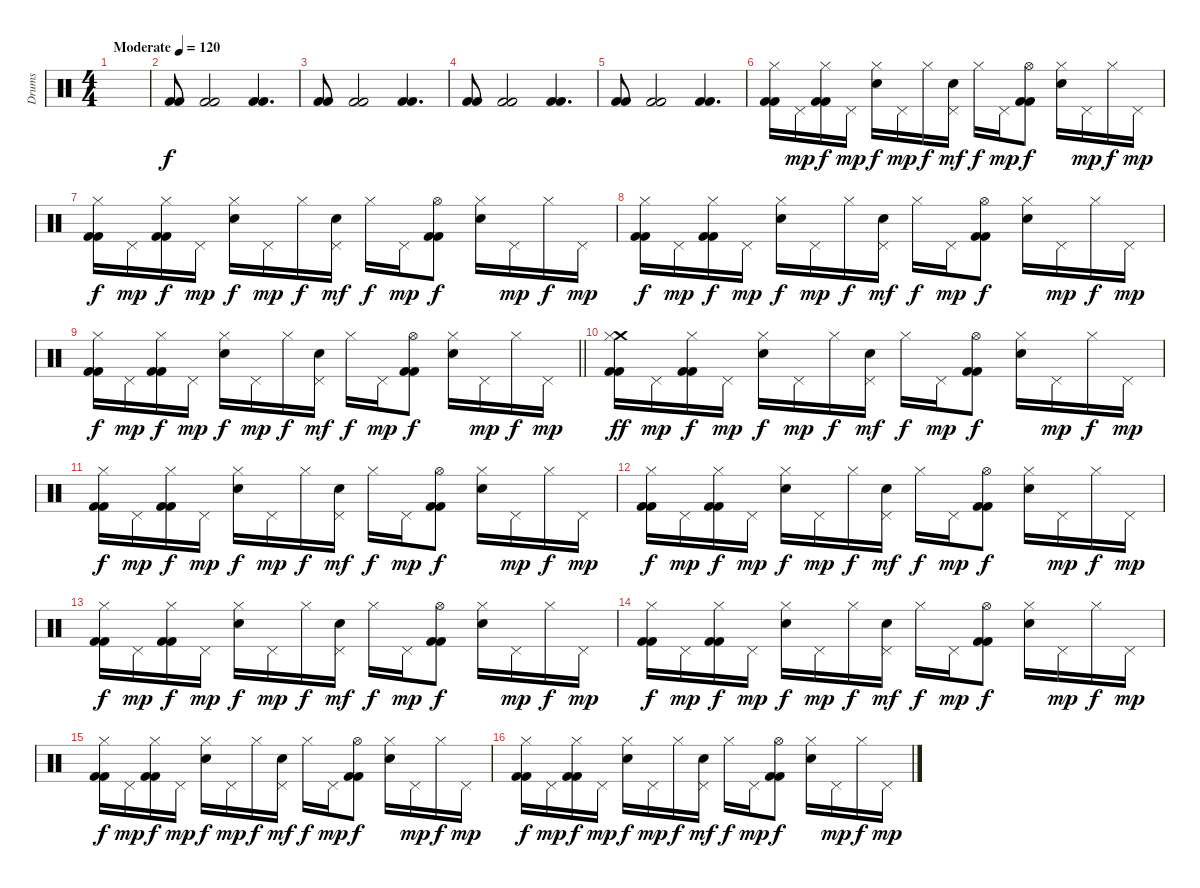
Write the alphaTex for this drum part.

\track ("Drums" "Drums") {instrument percussion}
\staff {score}
\articulation defaults
\ts (4 4)
\tempo (120 "Moderate")
\clef neutral
\ks c
|
("Kick (hit) 2" "Kick (hit) 2").8 ("Kick (hit) 2" "Kick (hit) 2").2{dy f} ("Kick (hit) 2" "Kick (hit) 2").4{d} |
("Kick (hit) 2" "Kick (hit) 2").8 ("Kick (hit) 2" "Kick (hit) 2").2 ("Kick (hit) 2" "Kick (hit) 2").4{d} |
("Kick (hit) 2" "Kick (hit) 2").8 ("Kick (hit) 2" "Kick (hit) 2").2 ("Kick (hit) 2" "Kick (hit) 2").4{d} |
("Kick (hit) 2" "Kick (hit) 2").8 ("Kick (hit) 2" "Kick (hit) 2").2 ("Kick (hit) 2" "Kick (hit) 2").4{d} |
("Hi-Hat (closed)" "Kick (hit) 2" "Kick (hit) 2").16 "Pedal Hi-Hat (hit)".16{dy mp} ("Hi-Hat (closed)" "Kick (hit) 2" "Kick (hit) 2").16{dy f} "Pedal Hi-Hat (hit)".16{dy mp} ("Hi-Hat (closed)" "Electric Snare (hit)").16{dy f} "Pedal Hi-Hat (hit)".16{dy mp} "Hi-Hat (closed)".16{dy f} ("Pedal Hi-Hat (hit)" "Electric Snare (hit)").16{dy mf} "Hi-Hat (closed)".16{dy f} "Pedal Hi-Hat (hit)".16{dy mp} ("Hi-Hat (open)" "Kick (hit) 2" "Kick (hit) 2").8{dy f} ("Hi-Hat (closed)" "Electric Snare (hit)").16 "Pedal Hi-Hat (hit)".16{dy mp} "Hi-Hat (closed)".16{dy f} "Pedal Hi-Hat (hit)".16{dy mp} |
("Hi-Hat (closed)" "Kick (hit) 2" "Kick (hit) 2").16{dy f} "Pedal Hi-Hat (hit)".16{dy mp} ("Hi-Hat (closed)" "Kick (hit) 2" "Kick (hit) 2").16{dy f} "Pedal Hi-Hat (hit)".16{dy mp} ("Hi-Hat (closed)" "Electric Snare (hit)").16{dy f} "Pedal Hi-Hat (hit)".16{dy mp} "Hi-Hat (closed)".16{dy f} ("Pedal Hi-Hat (hit)" "Electric Snare (hit)").16{dy mf} "Hi-Hat (closed)".16{dy f} "Pedal Hi-Hat (hit)".16{dy mp} ("Hi-Hat (open)" "Kick (hit) 2" "Kick (hit) 2").8{dy f} ("Hi-Hat (closed)" "Electric Snare (hit)").16 "Pedal Hi-Hat (hit)".16{dy mp} "Hi-Hat (closed)".16{dy f} "Pedal Hi-Hat (hit)".16{dy mp} |
("Hi-Hat (closed)" "Kick (hit) 2" "Kick (hit) 2").16{dy f} "Pedal Hi-Hat (hit)".16{dy mp} ("Hi-Hat (closed)" "Kick (hit) 2" "Kick (hit) 2").16{dy f} "Pedal Hi-Hat (hit)".16{dy mp} ("Hi-Hat (closed)" "Electric Snare (hit)").16{dy f} "Pedal Hi-Hat (hit)".16{dy mp} "Hi-Hat (closed)".16{dy f} ("Pedal Hi-Hat (hit)" "Electric Snare (hit)").16{dy mf} "Hi-Hat (closed)".16{dy f} "Pedal Hi-Hat (hit)".16{dy mp} ("Hi-Hat (open)" "Kick (hit) 2" "Kick (hit) 2").8{dy f} ("Hi-Hat (closed)" "Electric Snare (hit)").16 "Pedal Hi-Hat (hit)".16{dy mp} "Hi-Hat (closed)".16{dy f} "Pedal Hi-Hat (hit)".16{dy mp} |
\barLineRight lightlight
("Hi-Hat (closed)" "Kick (hit) 2" "Kick (hit) 2").16{dy f} "Pedal Hi-Hat (hit)".16{dy mp} ("Hi-Hat (closed)" "Kick (hit) 2" "Kick (hit) 2").16{dy f} "Pedal Hi-Hat (hit)".16{dy mp} ("Hi-Hat (closed)" "Electric Snare (hit)").16{dy f} "Pedal Hi-Hat (hit)".16{dy mp} "Hi-Hat (closed)".16{dy f} ("Pedal Hi-Hat (hit)" "Electric Snare (hit)").16{dy mf} "Hi-Hat (closed)".16{dy f} "Pedal Hi-Hat (hit)".16{dy mp} ("Hi-Hat (open)" "Kick (hit) 2" "Kick (hit) 2").8{dy f} ("Hi-Hat (closed)" "Electric Snare (hit)").16 "Pedal Hi-Hat (hit)".16{dy mp} "Hi-Hat (closed)".16{dy f} "Pedal Hi-Hat (hit)".16{dy mp} |
("Crash medium (hit)" "Hi-Hat (closed)" "Kick (hit) 2" "Kick (hit) 2").16{dy ff} "Pedal Hi-Hat (hit)".16{dy mp} ("Hi-Hat (closed)" "Kick (hit) 2" "Kick (hit) 2").16{dy f} "Pedal Hi-Hat (hit)".16{dy mp} ("Hi-Hat (closed)" "Electric Snare (hit)").16{dy f} "Pedal Hi-Hat (hit)".16{dy mp} "Hi-Hat (closed)".16{dy f} ("Pedal Hi-Hat (hit)" "Electric Snare (hit)").16{dy mf} "Hi-Hat (closed)".16{dy f} "Pedal Hi-Hat (hit)".16{dy mp} ("Hi-Hat (open)" "Kick (hit) 2" "Kick (hit) 2").8{dy f} ("Hi-Hat (closed)" "Electric Snare (hit)").16 "Pedal Hi-Hat (hit)".16{dy mp} "Hi-Hat (closed)".16{dy f} "Pedal Hi-Hat (hit)".16{dy mp} |
("Hi-Hat (closed)" "Kick (hit) 2" "Kick (hit) 2").16{dy f} "Pedal Hi-Hat (hit)".16{dy mp} ("Hi-Hat (closed)" "Kick (hit) 2" "Kick (hit) 2").16{dy f} "Pedal Hi-Hat (hit)".16{dy mp} ("Hi-Hat (closed)" "Electric Snare (hit)").16{dy f} "Pedal Hi-Hat (hit)".16{dy mp} "Hi-Hat (closed)".16{dy f} ("Pedal Hi-Hat (hit)" "Electric Snare (hit)").16{dy mf} "Hi-Hat (closed)".16{dy f} "Pedal Hi-Hat (hit)".16{dy mp} ("Hi-Hat (open)" "Kick (hit) 2" "Kick (hit) 2").8{dy f} ("Hi-Hat (closed)" "Electric Snare (hit)").16 "Pedal Hi-Hat (hit)".16{dy mp} "Hi-Hat (closed)".16{dy f} "Pedal Hi-Hat (hit)".16{dy mp} |
("Hi-Hat (closed)" "Kick (hit) 2" "Kick (hit) 2").16{dy f} "Pedal Hi-Hat (hit)".16{dy mp} ("Hi-Hat (closed)" "Kick (hit) 2" "Kick (hit) 2").16{dy f} "Pedal Hi-Hat (hit)".16{dy mp} ("Hi-Hat (closed)" "Electric Snare (hit)").16{dy f} "Pedal Hi-Hat (hit)".16{dy mp} "Hi-Hat (closed)".16{dy f} ("Pedal Hi-Hat (hit)" "Electric Snare (hit)").16{dy mf} "Hi-Hat (closed)".16{dy f} "Pedal Hi-Hat (hit)".16{dy mp} ("Hi-Hat (open)" "Kick (hit) 2" "Kick (hit) 2").8{dy f} ("Hi-Hat (closed)" "Electric Snare (hit)").16 "Pedal Hi-Hat (hit)".16{dy mp} "Hi-Hat (closed)".16{dy f} "Pedal Hi-Hat (hit)".16{dy mp} |
("Hi-Hat (closed)" "Kick (hit) 2" "Kick (hit) 2").16{dy f} "Pedal Hi-Hat (hit)".16{dy mp} ("Hi-Hat (closed)" "Kick (hit) 2" "Kick (hit) 2").16{dy f} "Pedal Hi-Hat (hit)".16{dy mp} ("Hi-Hat (closed)" "Electric Snare (hit)").16{dy f} "Pedal Hi-Hat (hit)".16{dy mp} "Hi-Hat (closed)".16{dy f} ("Pedal Hi-Hat (hit)" "Electric Snare (hit)").16{dy mf} "Hi-Hat (closed)".16{dy f} "Pedal Hi-Hat (hit)".16{dy mp} ("Hi-Hat (open)" "Kick (hit) 2" "Kick (hit) 2").8{dy f} ("Hi-Hat (closed)" "Electric Snare (hit)").16 "Pedal Hi-Hat (hit)".16{dy mp} "Hi-Hat (closed)".16{dy f} "Pedal Hi-Hat (hit)".16{dy mp} |
("Hi-Hat (closed)" "Kick (hit) 2" "Kick (hit) 2").16{dy f} "Pedal Hi-Hat (hit)".16{dy mp} ("Hi-Hat (closed)" "Kick (hit) 2" "Kick (hit) 2").16{dy f} "Pedal Hi-Hat (hit)".16{dy mp} ("Hi-Hat (closed)" "Electric Snare (hit)").16{dy f} "Pedal Hi-Hat (hit)".16{dy mp} "Hi-Hat (closed)".16{dy f} ("Pedal Hi-Hat (hit)" "Electric Snare (hit)").16{dy mf} "Hi-Hat (closed)".16{dy f} "Pedal Hi-Hat (hit)".16{dy mp} ("Hi-Hat (open)" "Kick (hit) 2" "Kick (hit) 2").8{dy f} ("Hi-Hat (closed)" "Electric Snare (hit)").16 "Pedal Hi-Hat (hit)".16{dy mp} "Hi-Hat (closed)".16{dy f} "Pedal Hi-Hat (hit)".16{dy mp} |
("Hi-Hat (closed)" "Kick (hit) 2" "Kick (hit) 2").16{dy f} "Pedal Hi-Hat (hit)".16{dy mp} ("Hi-Hat (closed)" "Kick (hit) 2" "Kick (hit) 2").16{dy f} "Pedal Hi-Hat (hit)".16{dy mp} ("Hi-Hat (closed)" "Electric Snare (hit)").16{dy f} "Pedal Hi-Hat (hit)".16{dy mp} "Hi-Hat (closed)".16{dy f} ("Pedal Hi-Hat (hit)" "Electric Snare (hit)").16{dy mf} "Hi-Hat (closed)".16{dy f} "Pedal Hi-Hat (hit)".16{dy mp} ("Hi-Hat (open)" "Kick (hit) 2" "Kick (hit) 2").8{dy f} ("Hi-Hat (closed)" "Electric Snare (hit)").16 "Pedal Hi-Hat (hit)".16{dy mp} "Hi-Hat (closed)".16{dy f} "Pedal Hi-Hat (hit)".16{dy mp} |
("Hi-Hat (closed)" "Kick (hit) 2" "Kick (hit) 2").16{dy f} "Pedal Hi-Hat (hit)".16{dy mp} ("Hi-Hat (closed)" "Kick (hit) 2" "Kick (hit) 2").16{dy f} "Pedal Hi-Hat (hit)".16{dy mp} ("Hi-Hat (closed)" "Electric Snare (hit)").16{dy f} "Pedal Hi-Hat (hit)".16{dy mp} "Hi-Hat (closed)".16{dy f} ("Pedal Hi-Hat (hit)" "Electric Snare (hit)").16{dy mf} "Hi-Hat (closed)".16{dy f} "Pedal Hi-Hat (hit)".16{dy mp} ("Hi-Hat (open)" "Kick (hit) 2" "Kick (hit) 2").8{dy f} ("Hi-Hat (closed)" "Electric Snare (hit)").16 "Pedal Hi-Hat (hit)".16{dy mp} "Hi-Hat (closed)".16{dy f} "Pedal Hi-Hat (hit)".16{dy mp}
